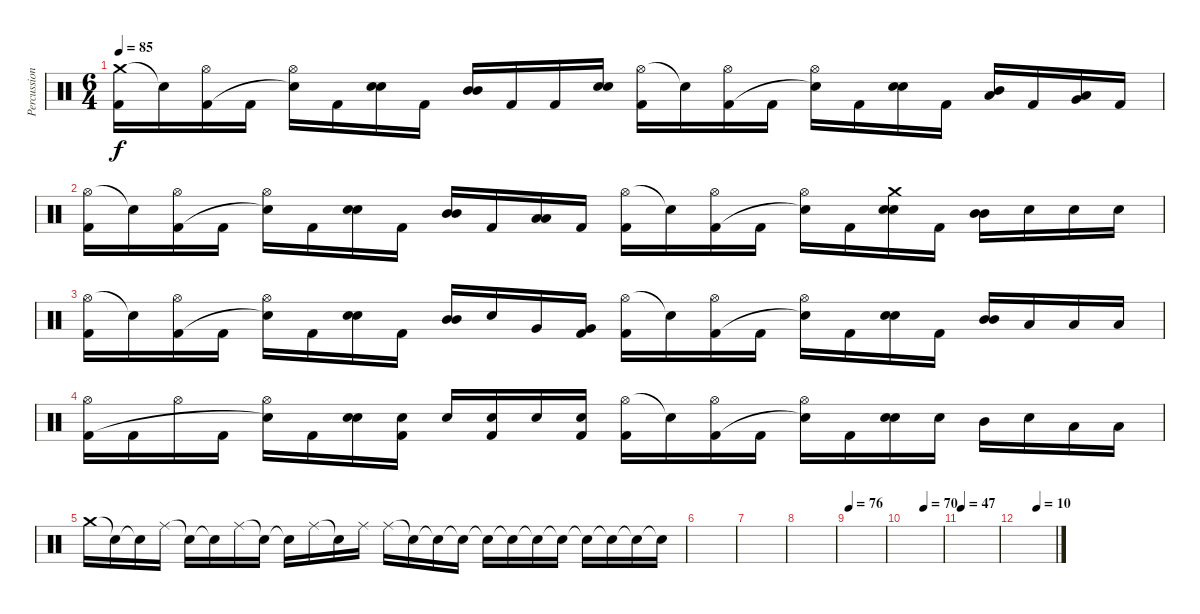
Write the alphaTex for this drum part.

\track ("Percussion" "Percussion") {instrument percussion}
\staff {score}
\articulation defaults
\ts (6 4)
\tempo 85
\clef neutral
\ks c
("Crash medium (hit)" "Kick (hit) 2").16{dy f} "Snare (hit)"{t}.16 ("Hi-Hat (open)" "Kick (hit) 2").16 "Kick (hit) 2".16 ("Hi-Hat (open)" "Snare (hit)"{t}).16 "Kick (hit) 2".16 ("Snare (hit) 2" "Snare (hit) 2").16{bd 60} "Kick (hit) 2".16 ("Mid Tom (hit)" "Mid Tom (hit)").16{bd 60} "Kick (hit) 2".16 "Kick (hit) 2".16 ("Snare (hit) 2" "Snare (hit) 2").16{bd 60} ("Hi-Hat (open)" "Kick (hit) 2").16 "Snare (hit)"{t}.16 ("Hi-Hat (open)" "Kick (hit) 2").16 "Kick (hit) 2".16 ("Hi-Hat (open)" "Snare (hit)"{t}).16 "Kick (hit) 2".16 ("Snare (hit) 2" "Snare (hit) 2").16{bd 60} "Kick (hit) 2".16 ("Low Tom (hit)" "Mid Tom (hit)").16{bd 60} "Kick (hit) 2".16 ("Very Low Tom (hit)" "Low Tom (hit)").16{bd 60} "Kick (hit) 2".16 |
("Hi-Hat (open)" "Kick (hit) 2").16 "Snare (hit)"{t}.16 ("Hi-Hat (open)" "Kick (hit) 2").16 "Kick (hit) 2".16 ("Hi-Hat (open)" "Snare (hit)"{t}).16 "Kick (hit) 2".16 ("Snare (hit) 2" "Snare (hit) 2").16{bd 60} "Kick (hit) 2".16 ("Mid Tom (hit)" "Mid Tom (hit)").16{bd 60} "Kick (hit) 2".16 ("Low Tom (hit)" "Low Tom (hit)").16{bd 60} "Kick (hit) 2".16 ("Hi-Hat (open)" "Kick (hit) 2").16 "Snare (hit)"{t}.16 ("Hi-Hat (open)" "Kick (hit) 2").16 "Kick (hit) 2".16 ("Hi-Hat (open)" "Snare (hit)"{t}).16 "Kick (hit) 2".16 ("Crash medium (hit)" "Snare (hit) 2" "Snare (hit) 2").16{bu 60} "Kick (hit) 2".16 ("Mid Tom (hit)" "Mid Tom (hit)").16{bd 60} "Snare (hit) 2".16 "Snare (hit) 2".16 "Snare (hit) 2".16 |
("Hi-Hat (open)" "Kick (hit) 2").16 "Snare (hit)"{t}.16 ("Hi-Hat (open)" "Kick (hit) 2").16 "Kick (hit) 2".16 ("Hi-Hat (open)" "Snare (hit)"{t}).16 "Kick (hit) 2".16 ("Snare (hit) 2" "Snare (hit) 2").16{bd 60} "Kick (hit) 2".16 ("Mid Tom (hit)" "Mid Tom (hit)").16{bd 60} "Snare (hit) 2".16 "Very Low Tom (hit)".16 ("Very Low Tom (hit)" "Kick (hit) 2").16 ("Hi-Hat (open)" "Kick (hit) 2").16 "Snare (hit)"{t}.16 ("Hi-Hat (open)" "Kick (hit) 2").16 "Kick (hit) 2".16 ("Hi-Hat (open)" "Snare (hit)"{t}).16 "Kick (hit) 2".16 ("Snare (hit) 2" "Snare (hit) 2").16{bu 60} "Kick (hit) 2".16 ("Mid Tom (hit)" "Mid Tom (hit)").16{bd 60} "Low Tom (hit)".16 "Low Tom (hit)".16 "Low Tom (hit)".16 |
("Hi-Hat (open)" "Kick (hit) 2").16 "Kick (hit) 2".16 "Hi-Hat (open)".16 "Kick (hit) 2".16 ("Hi-Hat (open)" "Snare (hit)"{t}).16 "Kick (hit) 2".16 ("Snare (hit) 2" "Snare (hit) 2").16{bd 60} ("Snare (hit) 2" "Kick (hit) 2").16 "Snare (hit) 2".16 ("Snare (hit) 2" "Kick (hit) 2").16 "Snare (hit) 2".16 ("Snare (hit) 2" "Kick (hit) 2").16 ("Hi-Hat (open)" "Kick (hit) 2").16 "Snare (hit)"{t}.16 ("Hi-Hat (open)" "Kick (hit) 2").16 "Kick (hit) 2".16 ("Hi-Hat (open)" "Snare (hit)"{t}).16 "Kick (hit) 2".16 ("Snare (hit) 2" "Snare (hit) 2").16{bd 60} "Snare (hit) 2".16 "Mid Tom (hit)".16 "Snare (hit) 2".16 "Low Tom (hit)".16 "Low Tom (hit)".16 |
"Crash medium (hit)".16 "Snare (hit)"{t}.16 "Snare (hit)"{t}.16 "Ride (middle)".16 "Snare (hit)"{t}.16 "Snare (hit)"{t}.16 "Ride (middle)".16 "Snare (hit)"{t}.16 "Snare (hit)"{t}.16 "Ride (middle)".16 "Snare (hit)"{t}.16 "Ride (middle)".16 "Ride (middle)".16 "Snare (hit)"{t}.16 "Snare (hit)"{t}.16 "Snare (hit)"{t}.16 "Snare (hit)"{t}.16 "Snare (hit)"{t}.16 "Snare (hit)"{t}.16 "Snare (hit)"{t}.16 "Snare (hit)"{t}.16 "Snare (hit)"{t}.16 "Snare (hit)"{t}.16 "Snare (hit)"{t}.16 |
|
|
|
\tempo 76
|
\tempo (70 0.5)
|
\tempo 47
|
\tempo (10 0.5)
